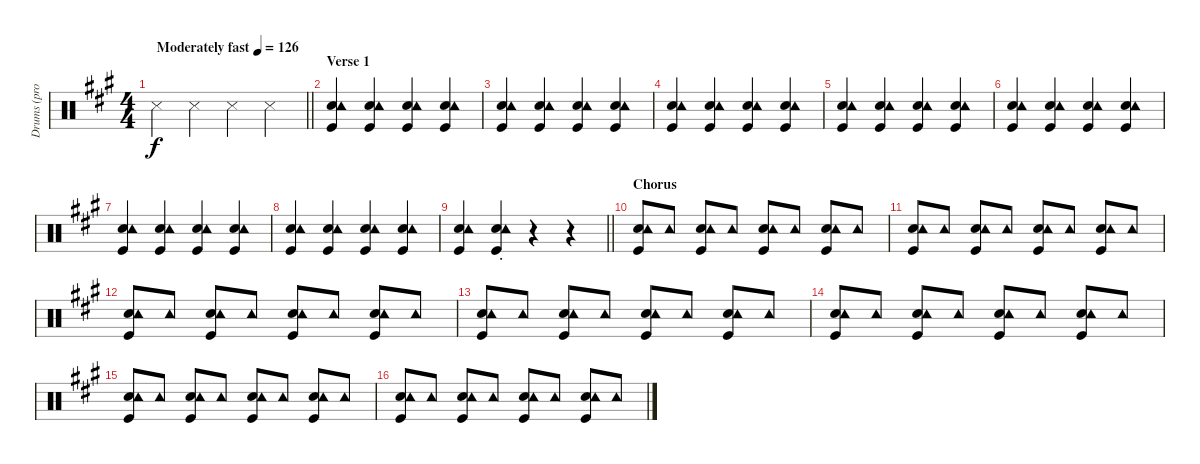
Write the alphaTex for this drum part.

\track ("Drums (prov.)" "Drums (pro") {instrument percussion}
\staff {score}
\articulation defaults
\ts (4 4)
\tempo (126 "Moderately fast")
\clef neutral
\barLineRight lightlight
\ks a "Metronome (hit)".4{dy f} "Metronome (hit)".4 "Metronome (hit)".4 "Metronome (hit)".4
|
\section ("" "Verse 1")
("Snare (hit) 2" "Tambourine (hit)" "Kick (hit)").4 ("Snare (hit) 2" "Tambourine (hit)" "Kick (hit)").4 ("Snare (hit) 2" "Tambourine (hit)" "Kick (hit)").4 ("Snare (hit) 2" "Tambourine (hit)" "Kick (hit)").4 |
("Snare (hit) 2" "Tambourine (hit)" "Kick (hit)").4 ("Snare (hit) 2" "Tambourine (hit)" "Kick (hit)").4 ("Snare (hit) 2" "Tambourine (hit)" "Kick (hit)").4 ("Snare (hit) 2" "Tambourine (hit)" "Kick (hit)").4 |
("Snare (hit) 2" "Tambourine (hit)" "Kick (hit)").4 ("Snare (hit) 2" "Tambourine (hit)" "Kick (hit)").4 ("Snare (hit) 2" "Tambourine (hit)" "Kick (hit)").4 ("Snare (hit) 2" "Tambourine (hit)" "Kick (hit)").4 |
("Snare (hit) 2" "Tambourine (hit)" "Kick (hit)").4 ("Snare (hit) 2" "Tambourine (hit)" "Kick (hit)").4 ("Snare (hit) 2" "Tambourine (hit)" "Kick (hit)").4 ("Snare (hit) 2" "Tambourine (hit)" "Kick (hit)").4 |
("Snare (hit) 2" "Tambourine (hit)" "Kick (hit)").4 ("Snare (hit) 2" "Tambourine (hit)" "Kick (hit)").4 ("Snare (hit) 2" "Tambourine (hit)" "Kick (hit)").4 ("Snare (hit) 2" "Tambourine (hit)" "Kick (hit)").4 |
("Snare (hit) 2" "Tambourine (hit)" "Kick (hit)").4 ("Snare (hit) 2" "Tambourine (hit)" "Kick (hit)").4 ("Snare (hit) 2" "Tambourine (hit)" "Kick (hit)").4 ("Snare (hit) 2" "Tambourine (hit)" "Kick (hit)").4 |
("Snare (hit) 2" "Tambourine (hit)" "Kick (hit)").4 ("Snare (hit) 2" "Tambourine (hit)" "Kick (hit)").4 ("Snare (hit) 2" "Tambourine (hit)" "Kick (hit)").4 ("Snare (hit) 2" "Tambourine (hit)" "Kick (hit)").4 |
\barLineRight lightlight
("Snare (hit) 2" "Tambourine (hit)" "Kick (hit)").4 ("Snare (hit) 2"{st} "Tambourine (hit)"{st} "Kick (hit)"{st}).4 r.4 r.4 |
\section ("" "Chorus")
("Snare (hit) 2" "Tambourine (hit)" "Kick (hit)").8 "Tambourine (hit)".8 ("Snare (hit) 2" "Tambourine (hit)" "Kick (hit)").8 "Tambourine (hit)".8 ("Snare (hit) 2" "Tambourine (hit)" "Kick (hit)").8 "Tambourine (hit)".8 ("Snare (hit) 2" "Tambourine (hit)" "Kick (hit)").8 "Tambourine (hit)".8 |
("Snare (hit) 2" "Tambourine (hit)" "Kick (hit)").8 "Tambourine (hit)".8 ("Snare (hit) 2" "Tambourine (hit)" "Kick (hit)").8 "Tambourine (hit)".8 ("Snare (hit) 2" "Tambourine (hit)" "Kick (hit)").8 "Tambourine (hit)".8 ("Snare (hit) 2" "Tambourine (hit)" "Kick (hit)").8 "Tambourine (hit)".8 |
("Snare (hit) 2" "Tambourine (hit)" "Kick (hit)").8 "Tambourine (hit)".8 ("Snare (hit) 2" "Tambourine (hit)" "Kick (hit)").8 "Tambourine (hit)".8 ("Snare (hit) 2" "Tambourine (hit)" "Kick (hit)").8 "Tambourine (hit)".8 ("Snare (hit) 2" "Tambourine (hit)" "Kick (hit)").8 "Tambourine (hit)".8 |
("Snare (hit) 2" "Tambourine (hit)" "Kick (hit)").8 "Tambourine (hit)".8 ("Snare (hit) 2" "Tambourine (hit)" "Kick (hit)").8 "Tambourine (hit)".8 ("Snare (hit) 2" "Tambourine (hit)" "Kick (hit)").8 "Tambourine (hit)".8 ("Snare (hit) 2" "Tambourine (hit)" "Kick (hit)").8 "Tambourine (hit)".8 |
("Snare (hit) 2" "Tambourine (hit)" "Kick (hit)").8 "Tambourine (hit)".8 ("Snare (hit) 2" "Tambourine (hit)" "Kick (hit)").8 "Tambourine (hit)".8 ("Snare (hit) 2" "Tambourine (hit)" "Kick (hit)").8 "Tambourine (hit)".8 ("Snare (hit) 2" "Tambourine (hit)" "Kick (hit)").8 "Tambourine (hit)".8 |
("Snare (hit) 2" "Tambourine (hit)" "Kick (hit)").8 "Tambourine (hit)".8 ("Snare (hit) 2" "Tambourine (hit)" "Kick (hit)").8 "Tambourine (hit)".8 ("Snare (hit) 2" "Tambourine (hit)" "Kick (hit)").8 "Tambourine (hit)".8 ("Snare (hit) 2" "Tambourine (hit)" "Kick (hit)").8 "Tambourine (hit)".8 |
("Snare (hit) 2" "Tambourine (hit)" "Kick (hit)").8 "Tambourine (hit)".8 ("Snare (hit) 2" "Tambourine (hit)" "Kick (hit)").8 "Tambourine (hit)".8 ("Snare (hit) 2" "Tambourine (hit)" "Kick (hit)").8 "Tambourine (hit)".8 ("Snare (hit) 2" "Tambourine (hit)" "Kick (hit)").8 "Tambourine (hit)".8
